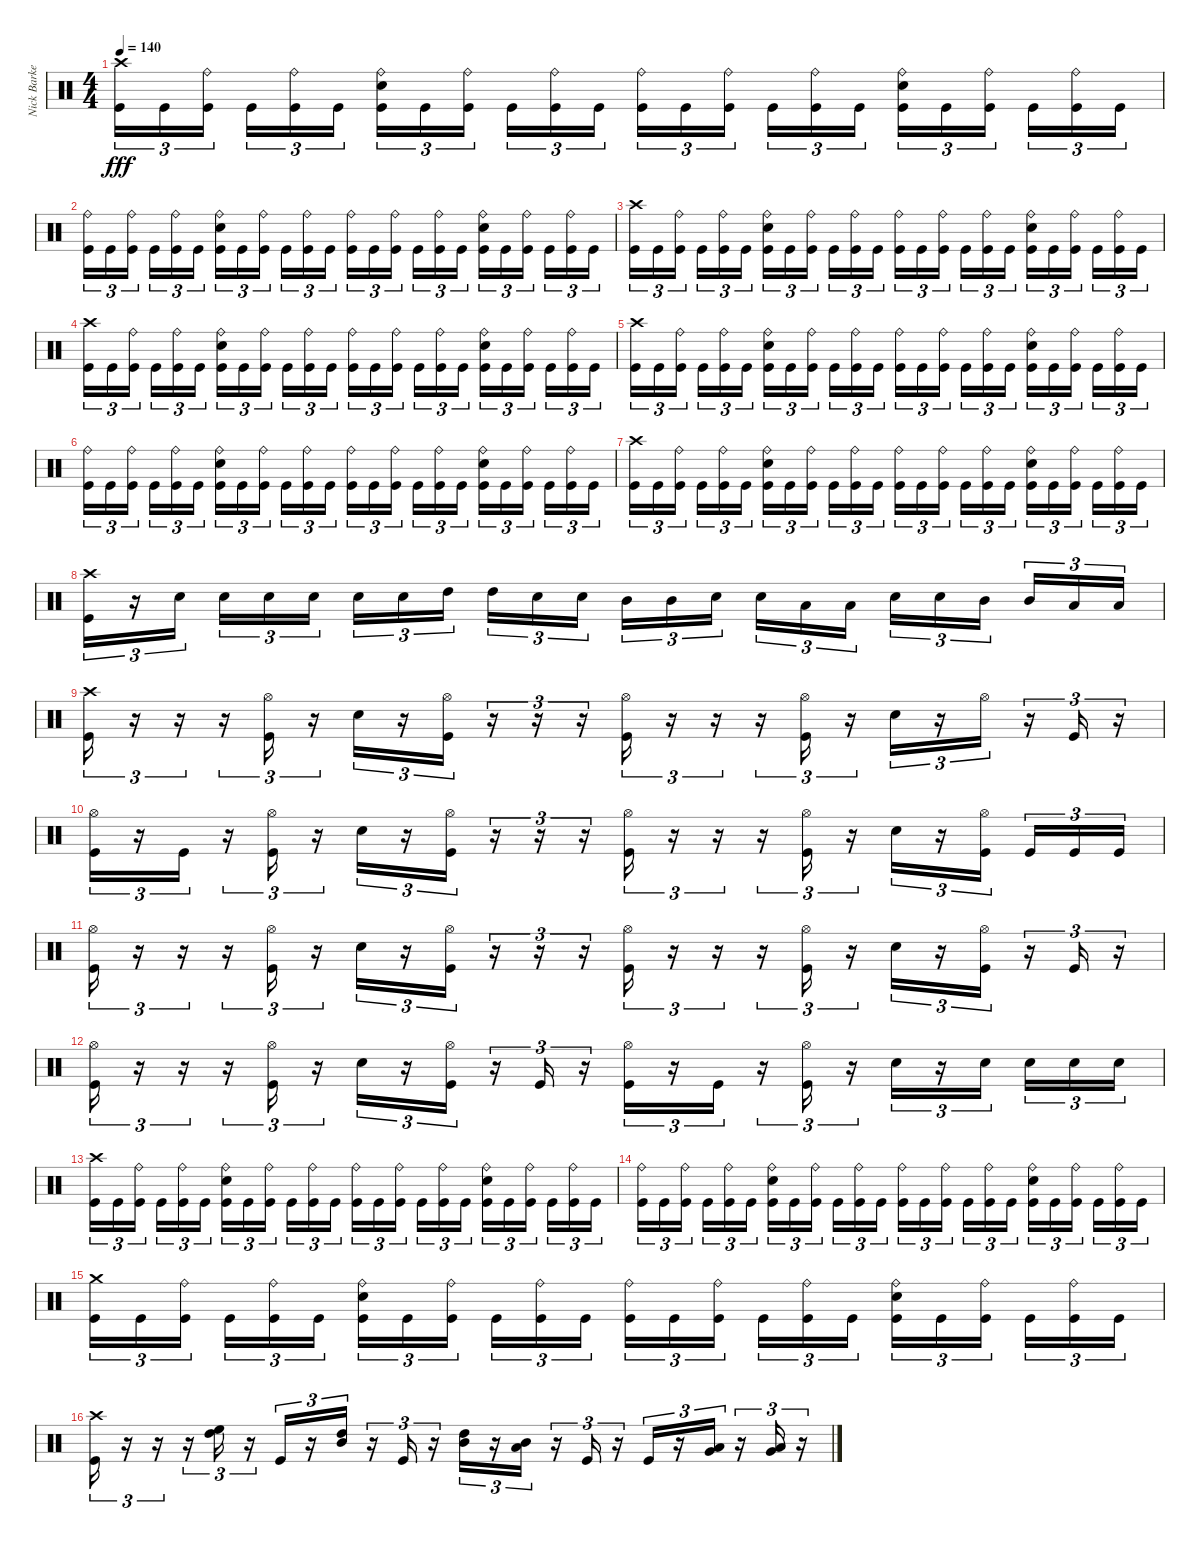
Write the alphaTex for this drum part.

\track ("Nick Barker" "Nick Barke") {instrument percussion}
\staff {score}
\articulation defaults
\ts (4 4)
\tempo 140
\clef neutral
\ks c
("Crash high (hit)" "Kick (hit)").16{tu (3 2) dy fff} "Kick (hit)".16{tu (3 2)} ("Ride (bell)" "Kick (hit)").16{tu (3 2)} "Kick (hit)".16{tu (3 2)} ("Ride (bell)" "Kick (hit)").16{tu (3 2)} "Kick (hit)".16{tu (3 2)} ("Ride (bell)" "Electric Snare (hit)" "Kick (hit)").16{tu (3 2)} "Kick (hit)".16{tu (3 2)} ("Ride (bell)" "Kick (hit)").16{tu (3 2)} "Kick (hit)".16{tu (3 2)} ("Ride (bell)" "Kick (hit)").16{tu (3 2)} "Kick (hit)".16{tu (3 2)} ("Ride (bell)" "Kick (hit)").16{tu (3 2)} "Kick (hit)".16{tu (3 2)} ("Ride (bell)" "Kick (hit)").16{tu (3 2)} "Kick (hit)".16{tu (3 2)} ("Ride (bell)" "Kick (hit)").16{tu (3 2)} "Kick (hit)".16{tu (3 2)} ("Ride (bell)" "Electric Snare (hit)" "Kick (hit)").16{tu (3 2)} "Kick (hit)".16{tu (3 2)} ("Ride (bell)" "Kick (hit)").16{tu (3 2)} "Kick (hit)".16{tu (3 2)} ("Ride (bell)" "Kick (hit)").16{tu (3 2)} "Kick (hit)".16{tu (3 2)} |
("Ride (bell)" "Kick (hit)").16{tu (3 2)} "Kick (hit)".16{tu (3 2)} ("Ride (bell)" "Kick (hit)").16{tu (3 2)} "Kick (hit)".16{tu (3 2)} ("Ride (bell)" "Kick (hit)").16{tu (3 2)} "Kick (hit)".16{tu (3 2)} ("Ride (bell)" "Electric Snare (hit)" "Kick (hit)").16{tu (3 2)} "Kick (hit)".16{tu (3 2)} ("Ride (bell)" "Kick (hit)").16{tu (3 2)} "Kick (hit)".16{tu (3 2)} ("Ride (bell)" "Kick (hit)").16{tu (3 2)} "Kick (hit)".16{tu (3 2)} ("Ride (bell)" "Kick (hit)").16{tu (3 2)} "Kick (hit)".16{tu (3 2)} ("Ride (bell)" "Kick (hit)").16{tu (3 2)} "Kick (hit)".16{tu (3 2)} ("Ride (bell)" "Kick (hit)").16{tu (3 2)} "Kick (hit)".16{tu (3 2)} ("Ride (bell)" "Electric Snare (hit)" "Kick (hit)").16{tu (3 2)} "Kick (hit)".16{tu (3 2)} ("Ride (bell)" "Kick (hit)").16{tu (3 2)} "Kick (hit)".16{tu (3 2)} ("Ride (bell)" "Kick (hit)").16{tu (3 2)} "Kick (hit)".16{tu (3 2)} |
("Crash high (hit)" "Kick (hit)").16{tu (3 2)} "Kick (hit)".16{tu (3 2)} ("Ride (bell)" "Kick (hit)").16{tu (3 2)} "Kick (hit)".16{tu (3 2)} ("Ride (bell)" "Kick (hit)").16{tu (3 2)} "Kick (hit)".16{tu (3 2)} ("Ride (bell)" "Electric Snare (hit)" "Kick (hit)").16{tu (3 2)} "Kick (hit)".16{tu (3 2)} ("Ride (bell)" "Kick (hit)").16{tu (3 2)} "Kick (hit)".16{tu (3 2)} ("Ride (bell)" "Kick (hit)").16{tu (3 2)} "Kick (hit)".16{tu (3 2)} ("Ride (bell)" "Kick (hit)").16{tu (3 2)} "Kick (hit)".16{tu (3 2)} ("Ride (bell)" "Kick (hit)").16{tu (3 2)} "Kick (hit)".16{tu (3 2)} ("Ride (bell)" "Kick (hit)").16{tu (3 2)} "Kick (hit)".16{tu (3 2)} ("Ride (bell)" "Electric Snare (hit)" "Kick (hit)").16{tu (3 2)} "Kick (hit)".16{tu (3 2)} ("Ride (bell)" "Kick (hit)").16{tu (3 2)} "Kick (hit)".16{tu (3 2)} ("Ride (bell)" "Kick (hit)").16{tu (3 2)} "Kick (hit)".16{tu (3 2)} |
("Crash high (hit)" "Kick (hit)").16{tu (3 2)} "Kick (hit)".16{tu (3 2)} ("Ride (bell)" "Kick (hit)").16{tu (3 2)} "Kick (hit)".16{tu (3 2)} ("Ride (bell)" "Kick (hit)").16{tu (3 2)} "Kick (hit)".16{tu (3 2)} ("Ride (bell)" "Electric Snare (hit)" "Kick (hit)").16{tu (3 2)} "Kick (hit)".16{tu (3 2)} ("Ride (bell)" "Kick (hit)").16{tu (3 2)} "Kick (hit)".16{tu (3 2)} ("Ride (bell)" "Kick (hit)").16{tu (3 2)} "Kick (hit)".16{tu (3 2)} ("Ride (bell)" "Kick (hit)").16{tu (3 2)} "Kick (hit)".16{tu (3 2)} ("Ride (bell)" "Kick (hit)").16{tu (3 2)} "Kick (hit)".16{tu (3 2)} ("Ride (bell)" "Kick (hit)").16{tu (3 2)} "Kick (hit)".16{tu (3 2)} ("Ride (bell)" "Electric Snare (hit)" "Kick (hit)").16{tu (3 2)} "Kick (hit)".16{tu (3 2)} ("Ride (bell)" "Kick (hit)").16{tu (3 2)} "Kick (hit)".16{tu (3 2)} ("Ride (bell)" "Kick (hit)").16{tu (3 2)} "Kick (hit)".16{tu (3 2)} |
("Crash high (hit)" "Kick (hit)").16{tu (3 2)} "Kick (hit)".16{tu (3 2)} ("Ride (bell)" "Kick (hit)").16{tu (3 2)} "Kick (hit)".16{tu (3 2)} ("Ride (bell)" "Kick (hit)").16{tu (3 2)} "Kick (hit)".16{tu (3 2)} ("Ride (bell)" "Electric Snare (hit)" "Kick (hit)").16{tu (3 2)} "Kick (hit)".16{tu (3 2)} ("Ride (bell)" "Kick (hit)").16{tu (3 2)} "Kick (hit)".16{tu (3 2)} ("Ride (bell)" "Kick (hit)").16{tu (3 2)} "Kick (hit)".16{tu (3 2)} ("Ride (bell)" "Kick (hit)").16{tu (3 2)} "Kick (hit)".16{tu (3 2)} ("Ride (bell)" "Kick (hit)").16{tu (3 2)} "Kick (hit)".16{tu (3 2)} ("Ride (bell)" "Kick (hit)").16{tu (3 2)} "Kick (hit)".16{tu (3 2)} ("Ride (bell)" "Electric Snare (hit)" "Kick (hit)").16{tu (3 2)} "Kick (hit)".16{tu (3 2)} ("Ride (bell)" "Kick (hit)").16{tu (3 2)} "Kick (hit)".16{tu (3 2)} ("Ride (bell)" "Kick (hit)").16{tu (3 2)} "Kick (hit)".16{tu (3 2)} |
("Ride (bell)" "Kick (hit)").16{tu (3 2)} "Kick (hit)".16{tu (3 2)} ("Ride (bell)" "Kick (hit)").16{tu (3 2)} "Kick (hit)".16{tu (3 2)} ("Ride (bell)" "Kick (hit)").16{tu (3 2)} "Kick (hit)".16{tu (3 2)} ("Ride (bell)" "Electric Snare (hit)" "Kick (hit)").16{tu (3 2)} "Kick (hit)".16{tu (3 2)} ("Ride (bell)" "Kick (hit)").16{tu (3 2)} "Kick (hit)".16{tu (3 2)} ("Ride (bell)" "Kick (hit)").16{tu (3 2)} "Kick (hit)".16{tu (3 2)} ("Ride (bell)" "Kick (hit)").16{tu (3 2)} "Kick (hit)".16{tu (3 2)} ("Ride (bell)" "Kick (hit)").16{tu (3 2)} "Kick (hit)".16{tu (3 2)} ("Ride (bell)" "Kick (hit)").16{tu (3 2)} "Kick (hit)".16{tu (3 2)} ("Ride (bell)" "Electric Snare (hit)" "Kick (hit)").16{tu (3 2)} "Kick (hit)".16{tu (3 2)} ("Ride (bell)" "Kick (hit)").16{tu (3 2)} "Kick (hit)".16{tu (3 2)} ("Ride (bell)" "Kick (hit)").16{tu (3 2)} "Kick (hit)".16{tu (3 2)} |
("Crash high (hit)" "Kick (hit)").16{tu (3 2)} "Kick (hit)".16{tu (3 2)} ("Ride (bell)" "Kick (hit)").16{tu (3 2)} "Kick (hit)".16{tu (3 2)} ("Ride (bell)" "Kick (hit)").16{tu (3 2)} "Kick (hit)".16{tu (3 2)} ("Ride (bell)" "Electric Snare (hit)" "Kick (hit)").16{tu (3 2)} "Kick (hit)".16{tu (3 2)} ("Ride (bell)" "Kick (hit)").16{tu (3 2)} "Kick (hit)".16{tu (3 2)} ("Ride (bell)" "Kick (hit)").16{tu (3 2)} "Kick (hit)".16{tu (3 2)} ("Ride (bell)" "Kick (hit)").16{tu (3 2)} "Kick (hit)".16{tu (3 2)} ("Ride (bell)" "Kick (hit)").16{tu (3 2)} "Kick (hit)".16{tu (3 2)} ("Ride (bell)" "Kick (hit)").16{tu (3 2)} "Kick (hit)".16{tu (3 2)} ("Ride (bell)" "Electric Snare (hit)" "Kick (hit)").16{tu (3 2)} "Kick (hit)".16{tu (3 2)} ("Ride (bell)" "Kick (hit)").16{tu (3 2)} "Kick (hit)".16{tu (3 2)} ("Ride (bell)" "Kick (hit)").16{tu (3 2)} "Kick (hit)".16{tu (3 2)} |
("Crash high (hit)" "Kick (hit)").16{tu (3 2)} r.16{tu (3 2)} "Electric Snare (hit)".16{tu (3 2)} "Electric Snare (hit)".16{tu (3 2)} "Electric Snare (hit)".16{tu (3 2)} "Electric Snare (hit)".16{tu (3 2)} "Electric Snare (hit)".16{tu (3 2)} "Electric Snare (hit)".16{tu (3 2)} "High Tom (hit)".16{tu (3 2)} "High Tom (hit)".16{tu (3 2)} "Electric Snare (hit)".16{tu (3 2)} "Electric Snare (hit)".16{tu (3 2)} "Mid Tom (hit)".16{tu (3 2)} "Mid Tom (hit)".16{tu (3 2)} "Electric Snare (hit)".16{tu (3 2)} "Electric Snare (hit)".16{tu (3 2)} "Low Tom (hit)".16{tu (3 2)} "Low Tom (hit)".16{tu (3 2)} "Electric Snare (hit)".16{tu (3 2)} "Electric Snare (hit)".16{tu (3 2)} "Mid Tom (hit)".16{tu (3 2)} "Mid Tom (hit)".16{tu (3 2)} "Low Tom (hit)".16{tu (3 2)} "Low Tom (hit)".16{tu (3 2)} |
("Crash high (hit)" "Kick (hit)").16{tu (3 2)} r.16{tu (3 2)} r.16{tu (3 2)} r.16{tu (3 2)} ("Hi-Hat (open)" "Kick (hit)").16{tu (3 2)} r.16{tu (3 2)} "Electric Snare (hit)".16{tu (3 2)} r.16{tu (3 2)} ("Hi-Hat (open)" "Kick (hit)").16{tu (3 2)} r.16{tu (3 2)} r.16{tu (3 2)} r.16{tu (3 2)} ("Hi-Hat (open)" "Kick (hit)").16{tu (3 2)} r.16{tu (3 2)} r.16{tu (3 2)} r.16{tu (3 2)} ("Hi-Hat (open)" "Kick (hit)").16{tu (3 2)} r.16{tu (3 2)} "Electric Snare (hit)".16{tu (3 2)} r.16{tu (3 2)} "Hi-Hat (open)".16{tu (3 2)} r.16{tu (3 2)} "Kick (hit)".16{tu (3 2)} r.16{tu (3 2)} |
("Hi-Hat (open)" "Kick (hit)").16{tu (3 2)} r.16{tu (3 2)} "Kick (hit)".16{tu (3 2)} r.16{tu (3 2)} ("Hi-Hat (open)" "Kick (hit)").16{tu (3 2)} r.16{tu (3 2)} "Electric Snare (hit)".16{tu (3 2)} r.16{tu (3 2)} ("Hi-Hat (open)" "Kick (hit)").16{tu (3 2)} r.16{tu (3 2)} r.16{tu (3 2)} r.16{tu (3 2)} ("Hi-Hat (open)" "Kick (hit)").16{tu (3 2)} r.16{tu (3 2)} r.16{tu (3 2)} r.16{tu (3 2)} ("Hi-Hat (open)" "Kick (hit)").16{tu (3 2)} r.16{tu (3 2)} "Electric Snare (hit)".16{tu (3 2)} r.16{tu (3 2)} ("Hi-Hat (open)" "Kick (hit)").16{tu (3 2)} "Kick (hit)".16{tu (3 2)} "Kick (hit)".16{tu (3 2)} "Kick (hit)".16{tu (3 2)} |
("Hi-Hat (open)" "Kick (hit)").16{tu (3 2)} r.16{tu (3 2)} r.16{tu (3 2)} r.16{tu (3 2)} ("Hi-Hat (open)" "Kick (hit)").16{tu (3 2)} r.16{tu (3 2)} "Electric Snare (hit)".16{tu (3 2)} r.16{tu (3 2)} ("Hi-Hat (open)" "Kick (hit)").16{tu (3 2)} r.16{tu (3 2)} r.16{tu (3 2)} r.16{tu (3 2)} ("Hi-Hat (open)" "Kick (hit)").16{tu (3 2)} r.16{tu (3 2)} r.16{tu (3 2)} r.16{tu (3 2)} ("Hi-Hat (open)" "Kick (hit)").16{tu (3 2)} r.16{tu (3 2)} "Electric Snare (hit)".16{tu (3 2)} r.16{tu (3 2)} ("Hi-Hat (open)" "Kick (hit)").16{tu (3 2)} r.16{tu (3 2)} "Kick (hit)".16{tu (3 2)} r.16{tu (3 2)} |
("Hi-Hat (open)" "Kick (hit)").16{tu (3 2)} r.16{tu (3 2)} r.16{tu (3 2)} r.16{tu (3 2)} ("Hi-Hat (open)" "Kick (hit)").16{tu (3 2)} r.16{tu (3 2)} "Electric Snare (hit)".16{tu (3 2)} r.16{tu (3 2)} ("Hi-Hat (open)" "Kick (hit)").16{tu (3 2)} r.16{tu (3 2)} "Kick (hit)".16{tu (3 2)} r.16{tu (3 2)} ("Hi-Hat (open)" "Kick (hit)").16{tu (3 2)} r.16{tu (3 2)} "Kick (hit)".16{tu (3 2)} r.16{tu (3 2)} ("Hi-Hat (open)" "Kick (hit)").16{tu (3 2)} r.16{tu (3 2)} "Electric Snare (hit)".16{tu (3 2)} r.16{tu (3 2)} "Electric Snare (hit)".16{tu (3 2)} "Electric Snare (hit)".16{tu (3 2)} "Electric Snare (hit)".16{tu (3 2)} "Electric Snare (hit)".16{tu (3 2)} |
("Crash high (hit)" "Kick (hit)").16{tu (3 2)} "Kick (hit)".16{tu (3 2)} ("Ride (bell)" "Kick (hit)").16{tu (3 2)} "Kick (hit)".16{tu (3 2)} ("Ride (bell)" "Kick (hit)").16{tu (3 2)} "Kick (hit)".16{tu (3 2)} ("Ride (bell)" "Electric Snare (hit)" "Kick (hit)").16{tu (3 2)} "Kick (hit)".16{tu (3 2)} ("Ride (bell)" "Kick (hit)").16{tu (3 2)} "Kick (hit)".16{tu (3 2)} ("Ride (bell)" "Kick (hit)").16{tu (3 2)} "Kick (hit)".16{tu (3 2)} ("Ride (bell)" "Kick (hit)").16{tu (3 2)} "Kick (hit)".16{tu (3 2)} ("Ride (bell)" "Kick (hit)").16{tu (3 2)} "Kick (hit)".16{tu (3 2)} ("Ride (bell)" "Kick (hit)").16{tu (3 2)} "Kick (hit)".16{tu (3 2)} ("Ride (bell)" "Electric Snare (hit)" "Kick (hit)").16{tu (3 2)} "Kick (hit)".16{tu (3 2)} ("Ride (bell)" "Kick (hit)").16{tu (3 2)} "Kick (hit)".16{tu (3 2)} ("Ride (bell)" "Kick (hit)").16{tu (3 2)} "Kick (hit)".16{tu (3 2)} |
("Ride (bell)" "Kick (hit)").16{tu (3 2)} "Kick (hit)".16{tu (3 2)} ("Ride (bell)" "Kick (hit)").16{tu (3 2)} "Kick (hit)".16{tu (3 2)} ("Ride (bell)" "Kick (hit)").16{tu (3 2)} "Kick (hit)".16{tu (3 2)} ("Ride (bell)" "Electric Snare (hit)" "Kick (hit)").16{tu (3 2)} "Kick (hit)".16{tu (3 2)} ("Ride (bell)" "Kick (hit)").16{tu (3 2)} "Kick (hit)".16{tu (3 2)} ("Ride (bell)" "Kick (hit)").16{tu (3 2)} "Kick (hit)".16{tu (3 2)} ("Ride (bell)" "Kick (hit)").16{tu (3 2)} "Kick (hit)".16{tu (3 2)} ("Ride (bell)" "Kick (hit)").16{tu (3 2)} "Kick (hit)".16{tu (3 2)} ("Ride (bell)" "Kick (hit)").16{tu (3 2)} "Kick (hit)".16{tu (3 2)} ("Ride (bell)" "Electric Snare (hit)" "Kick (hit)").16{tu (3 2)} "Kick (hit)".16{tu (3 2)} ("Ride (bell)" "Kick (hit)").16{tu (3 2)} "Kick (hit)".16{tu (3 2)} ("Ride (bell)" "Kick (hit)").16{tu (3 2)} "Kick (hit)".16{tu (3 2)} |
("Crash medium (hit)" "Kick (hit)").16{tu (3 2)} "Kick (hit)".16{tu (3 2)} ("Ride (bell)" "Kick (hit)").16{tu (3 2)} "Kick (hit)".16{tu (3 2)} ("Ride (bell)" "Kick (hit)").16{tu (3 2)} "Kick (hit)".16{tu (3 2)} ("Ride (bell)" "Electric Snare (hit)" "Kick (hit)").16{tu (3 2)} "Kick (hit)".16{tu (3 2)} ("Ride (bell)" "Kick (hit)").16{tu (3 2)} "Kick (hit)".16{tu (3 2)} ("Ride (bell)" "Kick (hit)").16{tu (3 2)} "Kick (hit)".16{tu (3 2)} ("Ride (bell)" "Kick (hit)").16{tu (3 2)} "Kick (hit)".16{tu (3 2)} ("Ride (bell)" "Kick (hit)").16{tu (3 2)} "Kick (hit)".16{tu (3 2)} ("Ride (bell)" "Kick (hit)").16{tu (3 2)} "Kick (hit)".16{tu (3 2)} ("Ride (bell)" "Electric Snare (hit)" "Kick (hit)").16{tu (3 2)} "Kick (hit)".16{tu (3 2)} ("Ride (bell)" "Kick (hit)").16{tu (3 2)} "Kick (hit)".16{tu (3 2)} ("Ride (bell)" "Kick (hit)").16{tu (3 2)} "Kick (hit)".16{tu (3 2)} |
("Crash high (hit)" "Kick (hit)").16{tu (3 2)} r.16{tu (3 2)} r.16{tu (3 2)} r.16{tu (3 2)} ("High Floor Tom (hit)" "High Tom (hit)").16{tu (3 2)} r.16{tu (3 2)} "Kick (hit)".16{tu (3 2)} r.16{tu (3 2)} ("High Tom (hit)" "Mid Tom (hit)").16{tu (3 2)} r.16{tu (3 2)} "Kick (hit)".16{tu (3 2)} r.16{tu (3 2)} ("High Tom (hit)" "Mid Tom (hit)").16{tu (3 2)} r.16{tu (3 2)} ("Mid Tom (hit)" "Low Tom (hit)").16{tu (3 2)} r.16{tu (3 2)} "Kick (hit)".16{tu (3 2)} r.16{tu (3 2)} "Kick (hit)".16{tu (3 2)} r.16{tu (3 2)} ("Low Tom (hit)" "Very Low Tom (hit)").16{tu (3 2)} r.16{tu (3 2)} ("Very Low Tom (hit)" "Low Floor Tom (hit)").16{tu (3 2)} r.16{tu (3 2)}
